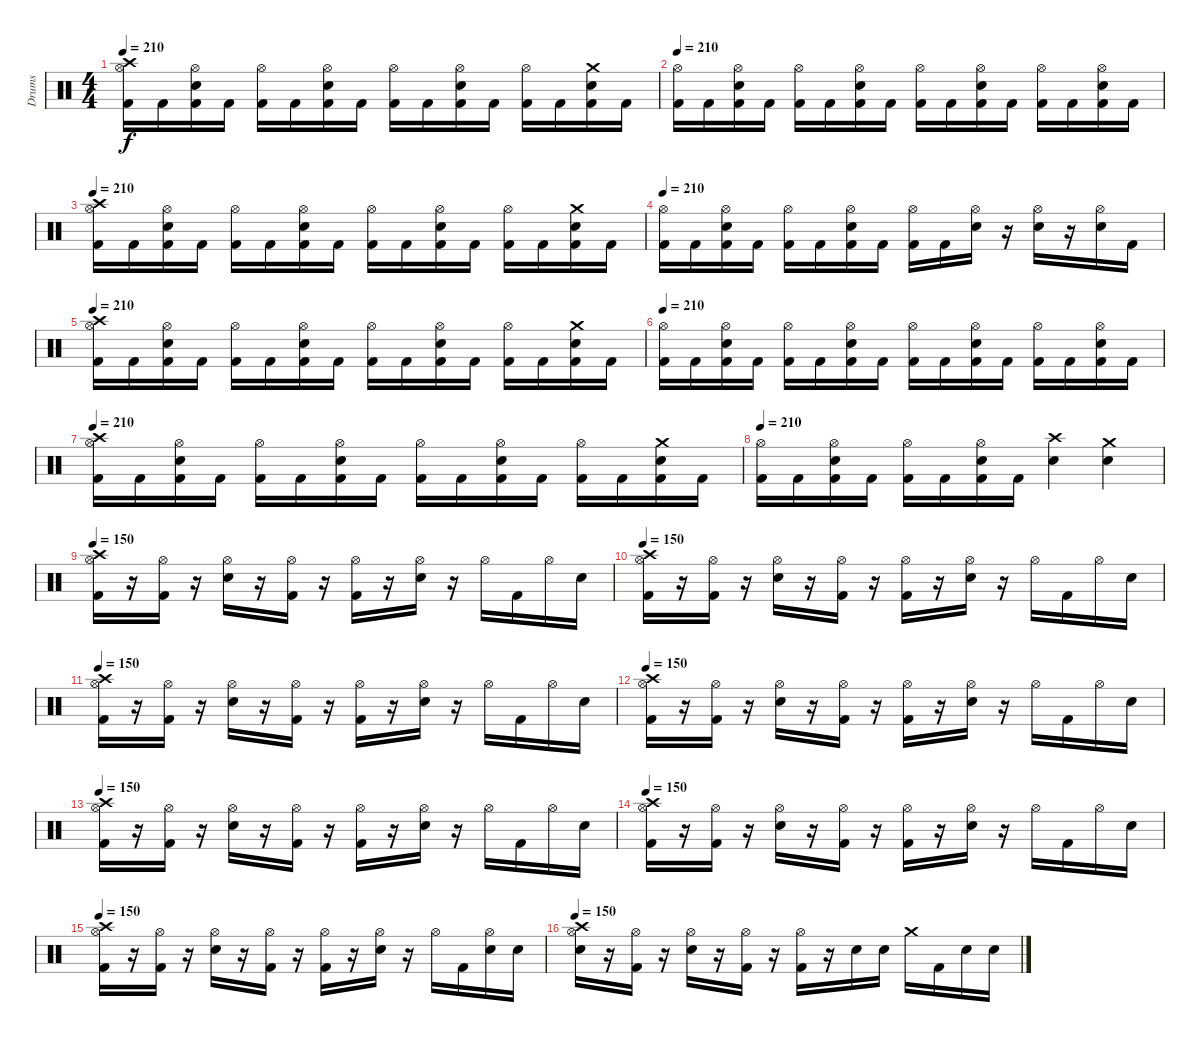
\track ("Drums" "Drums") {instrument percussion}
\staff {score}
\articulation defaults
\ts (4 4)
\tempo 210
\clef neutral
\ks c
("Crash high (hit)" "Hi-Hat (open)" "Kick (hit) 2").16{dy f} "Kick (hit) 2".16 ("Hi-Hat (open)" "Electric Snare (hit)" "Kick (hit) 2").16 "Kick (hit) 2".16 ("Hi-Hat (open)" "Kick (hit) 2").16 "Kick (hit) 2".16 ("Hi-Hat (open)" "Electric Snare (hit)" "Kick (hit) 2").16 "Kick (hit) 2".16 ("Hi-Hat (open)" "Kick (hit) 2").16 "Kick (hit) 2".16 ("Hi-Hat (open)" "Electric Snare (hit)" "Kick (hit) 2").16 "Kick (hit) 2".16 ("Hi-Hat (open)" "Kick (hit) 2").16 "Kick (hit) 2".16 ("Crash medium (hit)" "Electric Snare (hit)" "Kick (hit) 2").16 "Kick (hit) 2".16 |
\tempo 210
("Hi-Hat (open)" "Kick (hit) 2").16 "Kick (hit) 2".16 ("Hi-Hat (open)" "Electric Snare (hit)" "Kick (hit) 2").16 "Kick (hit) 2".16 ("Hi-Hat (open)" "Kick (hit) 2").16 "Kick (hit) 2".16 ("Hi-Hat (open)" "Electric Snare (hit)" "Kick (hit) 2").16 "Kick (hit) 2".16 ("Hi-Hat (open)" "Kick (hit) 2").16 "Kick (hit) 2".16 ("Hi-Hat (open)" "Electric Snare (hit)" "Kick (hit) 2").16 "Kick (hit) 2".16 ("Hi-Hat (open)" "Kick (hit) 2").16 "Kick (hit) 2".16 ("Hi-Hat (open)" "Electric Snare (hit)" "Kick (hit) 2").16 "Kick (hit) 2".16 |
\tempo 210
("Crash high (hit)" "Hi-Hat (open)" "Kick (hit) 2").16 "Kick (hit) 2".16 ("Hi-Hat (open)" "Electric Snare (hit)" "Kick (hit) 2").16 "Kick (hit) 2".16 ("Hi-Hat (open)" "Kick (hit) 2").16 "Kick (hit) 2".16 ("Hi-Hat (open)" "Electric Snare (hit)" "Kick (hit) 2").16 "Kick (hit) 2".16 ("Hi-Hat (open)" "Kick (hit) 2").16 "Kick (hit) 2".16 ("Hi-Hat (open)" "Electric Snare (hit)" "Kick (hit) 2").16 "Kick (hit) 2".16 ("Hi-Hat (open)" "Kick (hit) 2").16 "Kick (hit) 2".16 ("Crash medium (hit)" "Electric Snare (hit)" "Kick (hit) 2").16 "Kick (hit) 2".16 |
\tempo 210
("Hi-Hat (open)" "Kick (hit) 2").16 "Kick (hit) 2".16 ("Hi-Hat (open)" "Electric Snare (hit)" "Kick (hit) 2").16 "Kick (hit) 2".16 ("Hi-Hat (open)" "Kick (hit) 2").16 "Kick (hit) 2".16 ("Hi-Hat (open)" "Electric Snare (hit)" "Kick (hit) 2").16 "Kick (hit) 2".16 ("Hi-Hat (open)" "Kick (hit) 2").16 "Kick (hit) 2".16 ("Hi-Hat (open)" "Electric Snare (hit)").16 r.16 ("Hi-Hat (open)" "Electric Snare (hit)").16 r.16 ("Hi-Hat (open)" "Electric Snare (hit)").16 "Kick (hit) 2".16 |
\tempo 210
("Crash high (hit)" "Hi-Hat (open)" "Kick (hit) 2").16 "Kick (hit) 2".16 ("Hi-Hat (open)" "Electric Snare (hit)" "Kick (hit) 2").16 "Kick (hit) 2".16 ("Hi-Hat (open)" "Kick (hit) 2").16 "Kick (hit) 2".16 ("Hi-Hat (open)" "Electric Snare (hit)" "Kick (hit) 2").16 "Kick (hit) 2".16 ("Hi-Hat (open)" "Kick (hit) 2").16 "Kick (hit) 2".16 ("Hi-Hat (open)" "Electric Snare (hit)" "Kick (hit) 2").16 "Kick (hit) 2".16 ("Hi-Hat (open)" "Kick (hit) 2").16 "Kick (hit) 2".16 ("Crash medium (hit)" "Electric Snare (hit)" "Kick (hit) 2").16 "Kick (hit) 2".16 |
\tempo 210
("Hi-Hat (open)" "Kick (hit) 2").16 "Kick (hit) 2".16 ("Hi-Hat (open)" "Electric Snare (hit)" "Kick (hit) 2").16 "Kick (hit) 2".16 ("Hi-Hat (open)" "Kick (hit) 2").16 "Kick (hit) 2".16 ("Hi-Hat (open)" "Electric Snare (hit)" "Kick (hit) 2").16 "Kick (hit) 2".16 ("Hi-Hat (open)" "Kick (hit) 2").16 "Kick (hit) 2".16 ("Hi-Hat (open)" "Electric Snare (hit)" "Kick (hit) 2").16 "Kick (hit) 2".16 ("Hi-Hat (open)" "Kick (hit) 2").16 "Kick (hit) 2".16 ("Hi-Hat (open)" "Electric Snare (hit)" "Kick (hit) 2").16 "Kick (hit) 2".16 |
\tempo 210
("Crash high (hit)" "Hi-Hat (open)" "Kick (hit) 2").16 "Kick (hit) 2".16 ("Hi-Hat (open)" "Electric Snare (hit)" "Kick (hit) 2").16 "Kick (hit) 2".16 ("Hi-Hat (open)" "Kick (hit) 2").16 "Kick (hit) 2".16 ("Hi-Hat (open)" "Electric Snare (hit)" "Kick (hit) 2").16 "Kick (hit) 2".16 ("Hi-Hat (open)" "Kick (hit) 2").16 "Kick (hit) 2".16 ("Hi-Hat (open)" "Electric Snare (hit)" "Kick (hit) 2").16 "Kick (hit) 2".16 ("Hi-Hat (open)" "Kick (hit) 2").16 "Kick (hit) 2".16 ("Crash medium (hit)" "Electric Snare (hit)" "Kick (hit) 2").16 "Kick (hit) 2".16 |
\tempo 210
("Hi-Hat (open)" "Kick (hit) 2").16 "Kick (hit) 2".16 ("Hi-Hat (open)" "Electric Snare (hit)" "Kick (hit) 2").16 "Kick (hit) 2".16 ("Hi-Hat (open)" "Kick (hit) 2").16 "Kick (hit) 2".16 ("Hi-Hat (open)" "Electric Snare (hit)" "Kick (hit) 2").16 "Kick (hit) 2".16 ("Crash high (hit)" "Electric Snare (hit)").4 ("Crash medium (hit)" "Electric Snare (hit)").4 |
\tempo 150
("Crash high (hit)" "Hi-Hat (open)" "Kick (hit) 2").16 r.16 ("Hi-Hat (open)" "Kick (hit) 2").16 r.16 ("Hi-Hat (open)" "Electric Snare (hit)").16 r.16 ("Hi-Hat (open)" "Kick (hit) 2").16 r.16 ("Hi-Hat (open)" "Kick (hit) 2").16 r.16 ("Hi-Hat (open)" "Electric Snare (hit)").16 r.16 "Hi-Hat (open)".16 "Kick (hit) 2".16 "Hi-Hat (open)".16 "Electric Snare (hit)".16 |
\tempo 150
("Crash high (hit)" "Hi-Hat (open)" "Kick (hit) 2").16 r.16 ("Hi-Hat (open)" "Kick (hit) 2").16 r.16 ("Hi-Hat (open)" "Electric Snare (hit)").16 r.16 ("Hi-Hat (open)" "Kick (hit) 2").16 r.16 ("Hi-Hat (open)" "Kick (hit) 2").16 r.16 ("Hi-Hat (open)" "Electric Snare (hit)").16 r.16 "Hi-Hat (open)".16 "Kick (hit) 2".16 "Hi-Hat (open)".16 "Electric Snare (hit)".16 |
\tempo 150
("Crash high (hit)" "Hi-Hat (open)" "Kick (hit) 2").16 r.16 ("Hi-Hat (open)" "Kick (hit) 2").16 r.16 ("Hi-Hat (open)" "Electric Snare (hit)").16 r.16 ("Hi-Hat (open)" "Kick (hit) 2").16 r.16 ("Hi-Hat (open)" "Kick (hit) 2").16 r.16 ("Hi-Hat (open)" "Electric Snare (hit)").16 r.16 "Hi-Hat (open)".16 "Kick (hit) 2".16 "Hi-Hat (open)".16 "Electric Snare (hit)".16 |
\tempo 150
("Crash high (hit)" "Hi-Hat (open)" "Kick (hit) 2").16 r.16 ("Hi-Hat (open)" "Kick (hit) 2").16 r.16 ("Hi-Hat (open)" "Electric Snare (hit)").16 r.16 ("Hi-Hat (open)" "Kick (hit) 2").16 r.16 ("Hi-Hat (open)" "Kick (hit) 2").16 r.16 ("Hi-Hat (open)" "Electric Snare (hit)").16 r.16 "Hi-Hat (open)".16 "Kick (hit) 2".16 "Hi-Hat (open)".16 "Electric Snare (hit)".16 |
\tempo 150
("Crash high (hit)" "Hi-Hat (open)" "Kick (hit) 2").16 r.16 ("Hi-Hat (open)" "Kick (hit) 2").16 r.16 ("Hi-Hat (open)" "Electric Snare (hit)").16 r.16 ("Hi-Hat (open)" "Kick (hit) 2").16 r.16 ("Hi-Hat (open)" "Kick (hit) 2").16 r.16 ("Hi-Hat (open)" "Electric Snare (hit)").16 r.16 "Hi-Hat (open)".16 "Kick (hit) 2".16 "Hi-Hat (open)".16 "Electric Snare (hit)".16 |
\tempo 150
("Crash high (hit)" "Hi-Hat (open)" "Kick (hit) 2").16 r.16 ("Hi-Hat (open)" "Kick (hit) 2").16 r.16 ("Hi-Hat (open)" "Electric Snare (hit)").16 r.16 ("Hi-Hat (open)" "Kick (hit) 2").16 r.16 ("Hi-Hat (open)" "Kick (hit) 2").16 r.16 ("Hi-Hat (open)" "Electric Snare (hit)").16 r.16 "Hi-Hat (open)".16 "Kick (hit) 2".16 "Hi-Hat (open)".16 "Electric Snare (hit)".16 |
\tempo 150
("Crash high (hit)" "Hi-Hat (open)" "Kick (hit) 2").16 r.16 ("Hi-Hat (open)" "Kick (hit) 2").16 r.16 ("Hi-Hat (open)" "Electric Snare (hit)").16 r.16 ("Hi-Hat (open)" "Kick (hit) 2").16 r.16 ("Hi-Hat (open)" "Kick (hit) 2").16 r.16 ("Hi-Hat (open)" "Electric Snare (hit)").16 r.16 "Hi-Hat (open)".16 "Kick (hit) 2".16 ("Hi-Hat (open)" "Electric Snare (hit)").16 "Electric Snare (hit)".16 |
\tempo 150
("Crash high (hit)" "Hi-Hat (open)" "Electric Snare (hit)").16 r.16 ("Hi-Hat (open)" "Kick (hit) 2").16 r.16 ("Hi-Hat (open)" "Electric Snare (hit)").16 r.16 ("Hi-Hat (open)" "Kick (hit) 2").16 r.16 ("Hi-Hat (open)" "Kick (hit) 2").16 r.16 "Electric Snare (hit)".16 "Electric Snare (hit)".16 "Crash medium (hit)".16 "Kick (hit) 2".16 "Electric Snare (hit)".16 "Electric Snare (hit)".16
